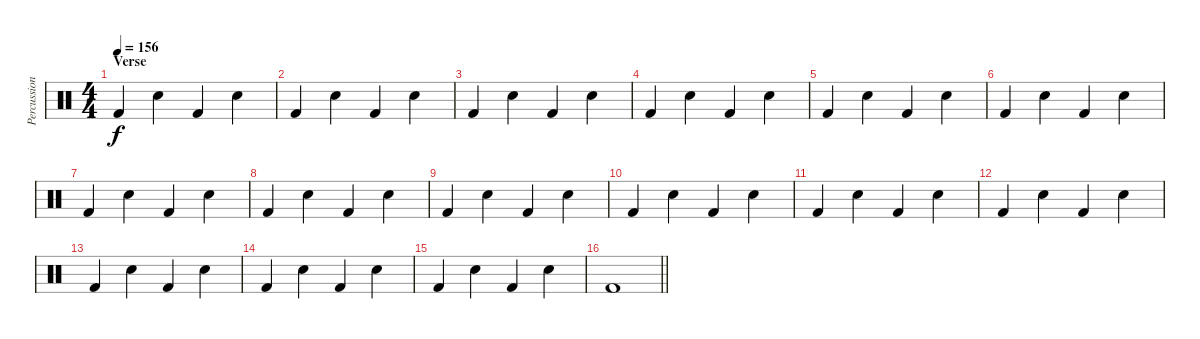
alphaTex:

\track ("Percussion" "Percussion") {instrument percussion}
\staff {score}
\articulation defaults
\ts (4 4)
\section ("" "Verse")
\tempo 156
\clef neutral
\ks c "Kick (hit) 2".4{dy f} "Hand Clap (hit)".4 "Kick (hit) 2".4 "Hand Clap (hit)".4
|
"Kick (hit) 2".4 "Hand Clap (hit)".4 "Kick (hit) 2".4 "Hand Clap (hit)".4 |
"Kick (hit) 2".4 "Hand Clap (hit)".4 "Kick (hit) 2".4 "Hand Clap (hit)".4 |
"Kick (hit) 2".4 "Hand Clap (hit)".4 "Kick (hit) 2".4 "Hand Clap (hit)".4 |
"Kick (hit) 2".4 "Hand Clap (hit)".4 "Kick (hit) 2".4 "Hand Clap (hit)".4 |
"Kick (hit) 2".4 "Hand Clap (hit)".4 "Kick (hit) 2".4 "Hand Clap (hit)".4 |
"Kick (hit) 2".4 "Hand Clap (hit)".4 "Kick (hit) 2".4 "Hand Clap (hit)".4 |
"Kick (hit) 2".4 "Hand Clap (hit)".4 "Kick (hit) 2".4 "Hand Clap (hit)".4 |
"Kick (hit) 2".4 "Hand Clap (hit)".4 "Kick (hit) 2".4 "Hand Clap (hit)".4 |
"Kick (hit) 2".4 "Hand Clap (hit)".4 "Kick (hit) 2".4 "Hand Clap (hit)".4 |
"Kick (hit) 2".4 "Hand Clap (hit)".4 "Kick (hit) 2".4 "Hand Clap (hit)".4 |
"Kick (hit) 2".4 "Hand Clap (hit)".4 "Kick (hit) 2".4 "Hand Clap (hit)".4 |
"Kick (hit) 2".4 "Hand Clap (hit)".4 "Kick (hit) 2".4 "Hand Clap (hit)".4 |
"Kick (hit) 2".4 "Hand Clap (hit)".4 "Kick (hit) 2".4 "Hand Clap (hit)".4 |
"Kick (hit) 2".4 "Hand Clap (hit)".4 "Kick (hit) 2".4 "Hand Clap (hit)".4 |
\barLineRight lightlight "Kick (hit) 2".1
